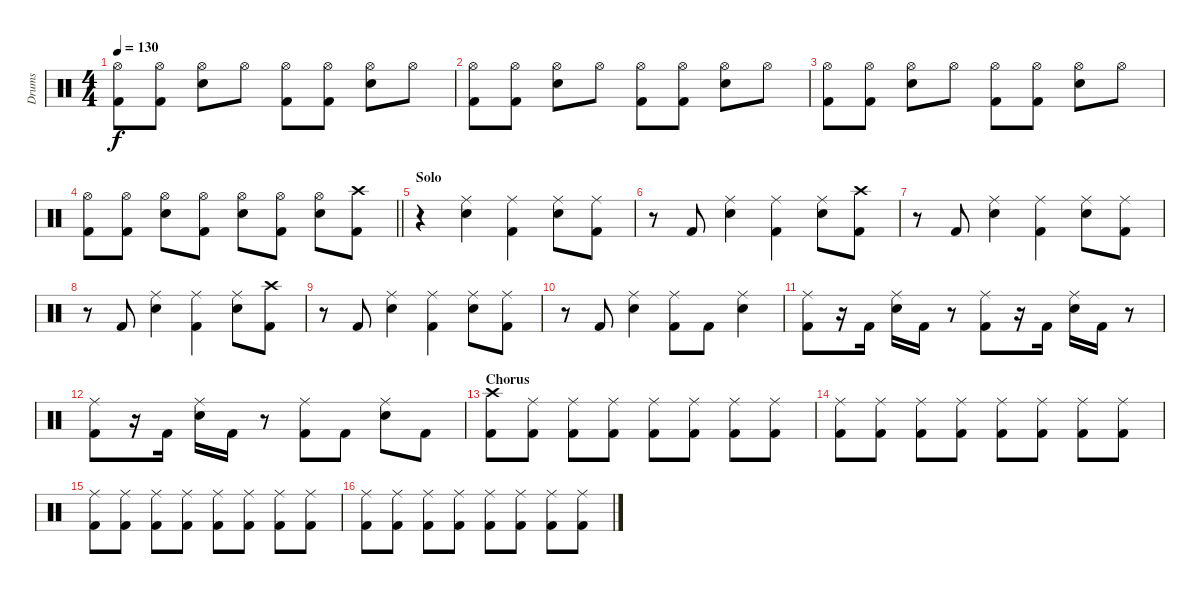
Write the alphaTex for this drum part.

\track ("Drums" "Drums") {instrument percussion}
\staff {score}
\articulation defaults
\ts (4 4)
\tempo 130
\clef neutral
\ks c
("Hi-Hat (open)" "Kick (hit) 2").8{dy f} ("Hi-Hat (open)" "Kick (hit) 2").8 ("Hi-Hat (open)" "Electric Snare (hit)").8 "Hi-Hat (open)".8 ("Hi-Hat (open)" "Kick (hit) 2").8 ("Hi-Hat (open)" "Kick (hit) 2").8 ("Hi-Hat (open)" "Electric Snare (hit)").8 "Hi-Hat (open)".8 |
("Hi-Hat (open)" "Kick (hit) 2").8 ("Hi-Hat (open)" "Kick (hit) 2").8 ("Hi-Hat (open)" "Electric Snare (hit)").8 "Hi-Hat (open)".8 ("Hi-Hat (open)" "Kick (hit) 2").8 ("Hi-Hat (open)" "Kick (hit) 2").8 ("Hi-Hat (open)" "Electric Snare (hit)").8 "Hi-Hat (open)".8 |
("Hi-Hat (open)" "Kick (hit) 2").8 ("Hi-Hat (open)" "Kick (hit) 2").8 ("Hi-Hat (open)" "Electric Snare (hit)").8 "Hi-Hat (open)".8 ("Hi-Hat (open)" "Kick (hit) 2").8 ("Hi-Hat (open)" "Kick (hit) 2").8 ("Hi-Hat (open)" "Electric Snare (hit)").8 "Hi-Hat (open)".8 |
\barLineRight lightlight
("Hi-Hat (open)" "Kick (hit) 2").8 ("Hi-Hat (open)" "Kick (hit) 2").8 ("Hi-Hat (open)" "Electric Snare (hit)").8 ("Hi-Hat (open)" "Kick (hit) 2").8 ("Hi-Hat (open)" "Electric Snare (hit)").8 ("Hi-Hat (open)" "Kick (hit) 2").8 ("Hi-Hat (open)" "Electric Snare (hit)").8 ("Crash high (hit)" "Kick (hit) 2").8 |
\section ("" "Solo")
r.4 ("Ride (middle)" "Electric Snare (hit)").4 ("Ride (middle)" "Kick (hit) 2").4 ("Ride (middle)" "Electric Snare (hit)").8 ("Ride (middle)" "Kick (hit) 2").8 |
r.8 "Kick (hit) 2".8 ("Ride (middle)" "Electric Snare (hit)").4 ("Ride (middle)" "Kick (hit) 2").4 ("Ride (middle)" "Electric Snare (hit)").8 ("Crash high (hit)" "Kick (hit) 2").8 |
r.8 "Kick (hit) 2".8 ("Ride (middle)" "Electric Snare (hit)").4 ("Ride (middle)" "Kick (hit) 2").4 ("Ride (middle)" "Electric Snare (hit)").8 ("Ride (middle)" "Kick (hit) 2").8 |
r.8 "Kick (hit) 2".8 ("Ride (middle)" "Electric Snare (hit)").4 ("Ride (middle)" "Kick (hit) 2").4 ("Ride (middle)" "Electric Snare (hit)").8 ("Crash high (hit)" "Kick (hit) 2").8 |
r.8 "Kick (hit) 2".8 ("Ride (middle)" "Electric Snare (hit)").4 ("Ride (middle)" "Kick (hit) 2").4 ("Ride (middle)" "Electric Snare (hit)").8 ("Ride (middle)" "Kick (hit) 2").8 |
r.8 "Kick (hit) 2".8 ("Ride (middle)" "Electric Snare (hit)").4 ("Ride (middle)" "Kick (hit) 2").8 "Kick (hit) 2".8 ("Ride (middle)" "Electric Snare (hit)").4 |
("Ride (middle)" "Kick (hit) 2").8 r.16 "Kick (hit) 2".16 ("Ride (middle)" "Electric Snare (hit)").16 "Kick (hit) 2".16 r.8 ("Ride (middle)" "Kick (hit) 2").8 r.16 "Kick (hit) 2".16 ("Ride (middle)" "Electric Snare (hit)").16 "Kick (hit) 2".16 r.8 |
("Ride (middle)" "Kick (hit) 2").8 r.16 "Kick (hit) 2".16 ("Ride (middle)" "Electric Snare (hit)").16 "Kick (hit) 2".16 r.8 ("Ride (middle)" "Kick (hit) 2").8 "Kick (hit) 2".8 ("Ride (middle)" "Electric Snare (hit)").8 "Kick (hit) 2".8 |
\section ("" "Chorus")
("Crash high (hit)" "Kick (hit) 2").8 ("Ride (middle)" "Kick (hit) 2").8 ("Ride (middle)" "Kick (hit) 2").8 ("Ride (middle)" "Kick (hit) 2").8 ("Ride (middle)" "Kick (hit) 2").8 ("Ride (middle)" "Kick (hit) 2").8 ("Ride (middle)" "Kick (hit) 2").8 ("Ride (middle)" "Kick (hit) 2").8 |
("Ride (middle)" "Kick (hit) 2").8 ("Ride (middle)" "Kick (hit) 2").8 ("Ride (middle)" "Kick (hit) 2").8 ("Ride (middle)" "Kick (hit) 2").8 ("Ride (middle)" "Kick (hit) 2").8 ("Ride (middle)" "Kick (hit) 2").8 ("Ride (middle)" "Kick (hit) 2").8 ("Ride (middle)" "Kick (hit) 2").8 |
("Ride (middle)" "Kick (hit) 2").8 ("Ride (middle)" "Kick (hit) 2").8 ("Ride (middle)" "Kick (hit) 2").8 ("Ride (middle)" "Kick (hit) 2").8 ("Ride (middle)" "Kick (hit) 2").8 ("Ride (middle)" "Kick (hit) 2").8 ("Ride (middle)" "Kick (hit) 2").8 ("Ride (middle)" "Kick (hit) 2").8 |
("Ride (middle)" "Kick (hit) 2").8 ("Ride (middle)" "Kick (hit) 2").8 ("Ride (middle)" "Kick (hit) 2").8 ("Ride (middle)" "Kick (hit) 2").8 ("Ride (middle)" "Kick (hit) 2").8 ("Ride (middle)" "Kick (hit) 2").8 ("Ride (middle)" "Kick (hit) 2").8 ("Ride (middle)" "Kick (hit) 2").8
